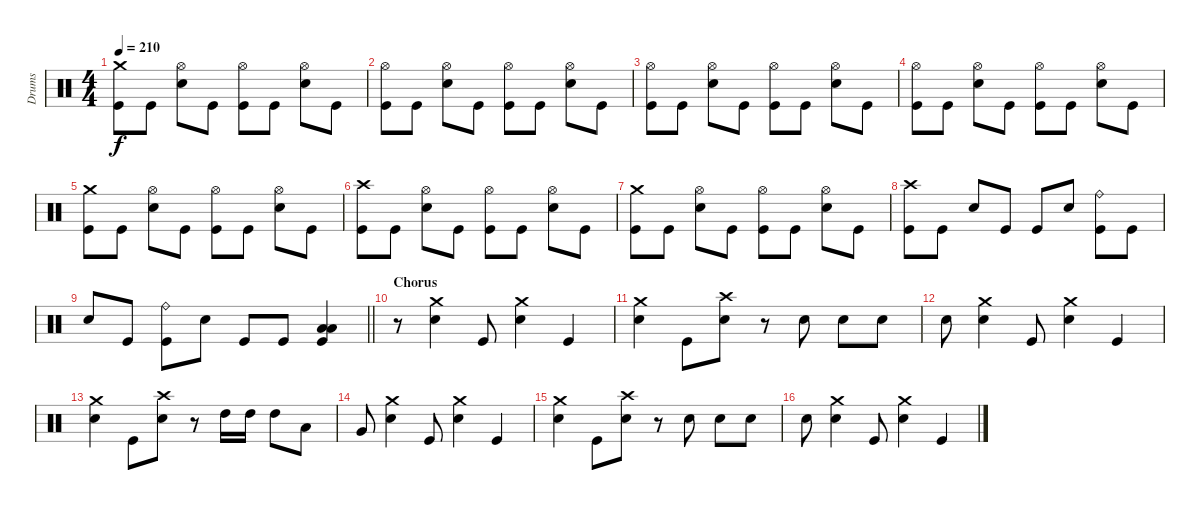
\track ("Drums" "Drums") {instrument percussion}
\staff {score}
\articulation defaults
\ts (4 4)
\tempo 210
\clef neutral
\ks c
("Crash medium (hit)" "Kick (hit)").8{dy f} "Kick (hit)".8 ("Hi-Hat (open)" "Snare (hit) 2").8 "Kick (hit)".8 ("Hi-Hat (open)" "Kick (hit)").8 "Kick (hit)".8 ("Hi-Hat (open)" "Snare (hit) 2").8 "Kick (hit)".8 |
("Hi-Hat (open)" "Kick (hit)").8 "Kick (hit)".8 ("Hi-Hat (open)" "Snare (hit) 2").8 "Kick (hit)".8 ("Hi-Hat (open)" "Kick (hit)").8 "Kick (hit)".8 ("Hi-Hat (open)" "Snare (hit) 2").8 "Kick (hit)".8 |
("Hi-Hat (open)" "Kick (hit)").8 "Kick (hit)".8 ("Hi-Hat (open)" "Snare (hit) 2").8 "Kick (hit)".8 ("Hi-Hat (open)" "Kick (hit)").8 "Kick (hit)".8 ("Hi-Hat (open)" "Snare (hit) 2").8 "Kick (hit)".8 |
("Hi-Hat (open)" "Kick (hit)").8 "Kick (hit)".8 ("Hi-Hat (open)" "Snare (hit) 2").8 "Kick (hit)".8 ("Hi-Hat (open)" "Kick (hit)").8 "Kick (hit)".8 ("Hi-Hat (open)" "Snare (hit) 2").8 "Kick (hit)".8 |
("Crash medium (hit)" "Kick (hit)").8 "Kick (hit)".8 ("Hi-Hat (open)" "Snare (hit) 2").8 "Kick (hit)".8 ("Hi-Hat (open)" "Kick (hit)").8 "Kick (hit)".8 ("Hi-Hat (open)" "Snare (hit) 2").8 "Kick (hit)".8 |
("Crash high (hit)" "Kick (hit)").8 "Kick (hit)".8 ("Hi-Hat (open)" "Snare (hit) 2").8 "Kick (hit)".8 ("Hi-Hat (open)" "Kick (hit)").8 "Kick (hit)".8 ("Hi-Hat (open)" "Snare (hit) 2").8 "Kick (hit)".8 |
("Crash medium (hit)" "Kick (hit)").8 "Kick (hit)".8 ("Hi-Hat (open)" "Snare (hit) 2").8 "Kick (hit)".8 ("Hi-Hat (open)" "Kick (hit)").8 "Kick (hit)".8 ("Hi-Hat (open)" "Snare (hit) 2").8 "Kick (hit)".8 |
("Crash high (hit)" "Kick (hit)").8 "Kick (hit)".8 "Snare (hit) 2".8 "Kick (hit)".8 "Kick (hit)".8 "Snare (hit) 2".8 ("Ride (bell)" "Kick (hit)").8 "Kick (hit)".8 |
\barLineRight lightlight "Snare (hit) 2".8 "Kick (hit)".8
("Ride (bell)" "Kick (hit)").8 "Snare (hit) 2".8 "Kick (hit)".8 "Kick (hit)".8 ("Low Tom (hit)" "Low Floor Tom (hit)" "Kick (hit)").4 |
\section ("" "Chorus")
r.8 ("Crash medium (hit)" "Snare (hit) 2").4 "Kick (hit)".8 ("Crash medium (hit)" "Snare (hit) 2").4 "Kick (hit)".4 |
("Crash medium (hit)" "Snare (hit) 2").4 "Kick (hit)".8 ("Crash high (hit)" "Snare (hit) 2").8 r.8 "Snare (hit) 2".8 "Snare (hit) 2".8 "Snare (hit) 2".8 |
"Snare (hit) 2".8 ("Crash medium (hit)" "Snare (hit) 2").4 "Kick (hit)".8 ("Crash medium (hit)" "Snare (hit) 2").4 "Kick (hit)".4 |
("Crash medium (hit)" "Snare (hit) 2").4 "Kick (hit)".8 ("Crash high (hit)" "Snare (hit) 2").8 r.8 "High Tom (hit)".16 "High Tom (hit)".16 "High Tom (hit)".8 "Low Tom (hit)".8 |
"Very Low Tom (hit)".8 ("Crash medium (hit)" "Snare (hit) 2").4 "Kick (hit)".8 ("Crash medium (hit)" "Snare (hit) 2").4 "Kick (hit)".4 |
("Crash medium (hit)" "Snare (hit) 2").4 "Kick (hit)".8 ("Crash high (hit)" "Snare (hit) 2").8 r.8 "Snare (hit) 2".8 "Snare (hit) 2".8 "Snare (hit) 2".8 |
"Snare (hit) 2".8 ("Crash medium (hit)" "Snare (hit) 2").4 "Kick (hit)".8 ("Crash medium (hit)" "Snare (hit) 2").4 "Kick (hit)".4
